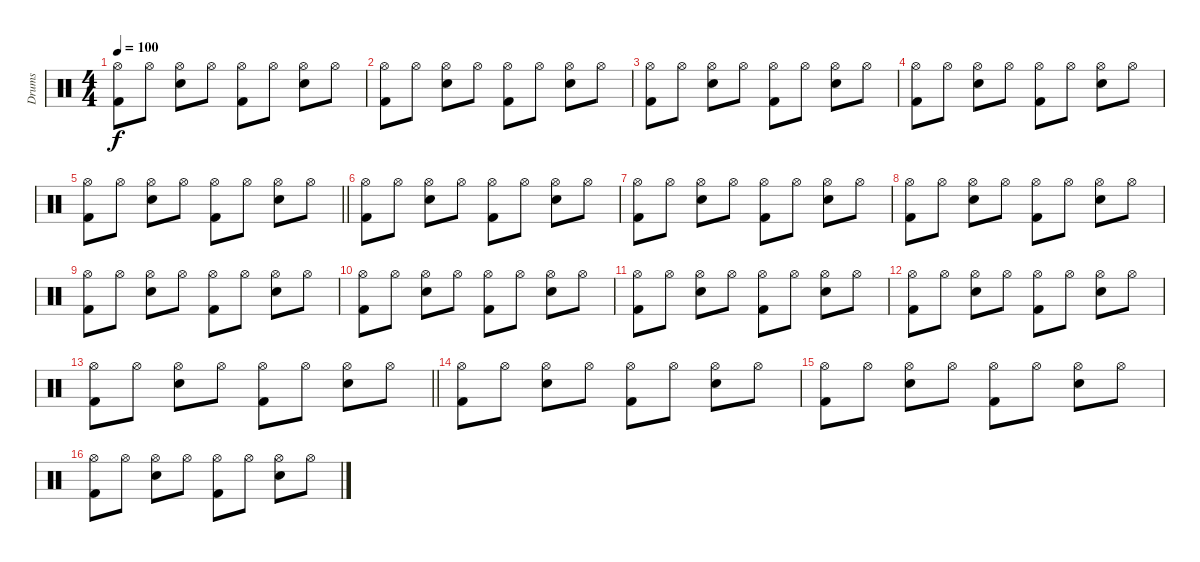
\track ("Drums" "Drums") {instrument percussion}
\staff {score}
\articulation defaults
\ts (4 4)
\tempo 100
\clef neutral
\ks c
("Hi-Hat (open)" "Kick (hit) 2").8{dy f} "Hi-Hat (open)".8 ("Hi-Hat (open)" "Electric Snare (hit)").8 "Hi-Hat (open)".8 ("Hi-Hat (open)" "Kick (hit) 2").8 "Hi-Hat (open)".8 ("Hi-Hat (open)" "Electric Snare (hit)").8 "Hi-Hat (open)".8 |
("Hi-Hat (open)" "Kick (hit) 2").8 "Hi-Hat (open)".8 ("Hi-Hat (open)" "Electric Snare (hit)").8 "Hi-Hat (open)".8 ("Hi-Hat (open)" "Kick (hit) 2").8 "Hi-Hat (open)".8 ("Hi-Hat (open)" "Electric Snare (hit)").8 "Hi-Hat (open)".8 |
("Hi-Hat (open)" "Kick (hit) 2").8 "Hi-Hat (open)".8 ("Hi-Hat (open)" "Electric Snare (hit)").8 "Hi-Hat (open)".8 ("Hi-Hat (open)" "Kick (hit) 2").8 "Hi-Hat (open)".8 ("Hi-Hat (open)" "Electric Snare (hit)").8 "Hi-Hat (open)".8 |
("Hi-Hat (open)" "Kick (hit) 2").8 "Hi-Hat (open)".8 ("Hi-Hat (open)" "Electric Snare (hit)").8 "Hi-Hat (open)".8 ("Hi-Hat (open)" "Kick (hit) 2").8 "Hi-Hat (open)".8 ("Hi-Hat (open)" "Electric Snare (hit)").8 "Hi-Hat (open)".8 |
\barLineRight lightlight
("Hi-Hat (open)" "Kick (hit) 2").8 "Hi-Hat (open)".8 ("Hi-Hat (open)" "Electric Snare (hit)").8 "Hi-Hat (open)".8 ("Hi-Hat (open)" "Kick (hit) 2").8 "Hi-Hat (open)".8 ("Hi-Hat (open)" "Electric Snare (hit)").8 "Hi-Hat (open)".8 |
("Hi-Hat (open)" "Kick (hit) 2").8 "Hi-Hat (open)".8 ("Hi-Hat (open)" "Electric Snare (hit)").8 "Hi-Hat (open)".8 ("Hi-Hat (open)" "Kick (hit) 2").8 "Hi-Hat (open)".8 ("Hi-Hat (open)" "Electric Snare (hit)").8 "Hi-Hat (open)".8 |
("Hi-Hat (open)" "Kick (hit) 2").8 "Hi-Hat (open)".8 ("Hi-Hat (open)" "Electric Snare (hit)").8 "Hi-Hat (open)".8 ("Hi-Hat (open)" "Kick (hit) 2").8 "Hi-Hat (open)".8 ("Hi-Hat (open)" "Electric Snare (hit)").8 "Hi-Hat (open)".8 |
("Hi-Hat (open)" "Kick (hit) 2").8 "Hi-Hat (open)".8 ("Hi-Hat (open)" "Electric Snare (hit)").8 "Hi-Hat (open)".8 ("Hi-Hat (open)" "Kick (hit) 2").8 "Hi-Hat (open)".8 ("Hi-Hat (open)" "Electric Snare (hit)").8 "Hi-Hat (open)".8 |
("Hi-Hat (open)" "Kick (hit) 2").8 "Hi-Hat (open)".8 ("Hi-Hat (open)" "Electric Snare (hit)").8 "Hi-Hat (open)".8 ("Hi-Hat (open)" "Kick (hit) 2").8 "Hi-Hat (open)".8 ("Hi-Hat (open)" "Electric Snare (hit)").8 "Hi-Hat (open)".8 |
("Hi-Hat (open)" "Kick (hit) 2").8 "Hi-Hat (open)".8 ("Hi-Hat (open)" "Electric Snare (hit)").8 "Hi-Hat (open)".8 ("Hi-Hat (open)" "Kick (hit) 2").8 "Hi-Hat (open)".8 ("Hi-Hat (open)" "Electric Snare (hit)").8 "Hi-Hat (open)".8 |
("Hi-Hat (open)" "Kick (hit) 2").8 "Hi-Hat (open)".8 ("Hi-Hat (open)" "Electric Snare (hit)").8 "Hi-Hat (open)".8 ("Hi-Hat (open)" "Kick (hit) 2").8 "Hi-Hat (open)".8 ("Hi-Hat (open)" "Electric Snare (hit)").8 "Hi-Hat (open)".8 |
("Hi-Hat (open)" "Kick (hit) 2").8 "Hi-Hat (open)".8 ("Hi-Hat (open)" "Electric Snare (hit)").8 "Hi-Hat (open)".8 ("Hi-Hat (open)" "Kick (hit) 2").8 "Hi-Hat (open)".8 ("Hi-Hat (open)" "Electric Snare (hit)").8 "Hi-Hat (open)".8 |
\barLineRight lightlight
("Hi-Hat (open)" "Kick (hit) 2").8 "Hi-Hat (open)".8 ("Hi-Hat (open)" "Electric Snare (hit)").8 "Hi-Hat (open)".8 ("Hi-Hat (open)" "Kick (hit) 2").8 "Hi-Hat (open)".8 ("Hi-Hat (open)" "Electric Snare (hit)").8 "Hi-Hat (open)".8 |
("Hi-Hat (open)" "Kick (hit) 2").8 "Hi-Hat (open)".8 ("Hi-Hat (open)" "Electric Snare (hit)").8 "Hi-Hat (open)".8 ("Hi-Hat (open)" "Kick (hit) 2").8 "Hi-Hat (open)".8 ("Hi-Hat (open)" "Electric Snare (hit)").8 "Hi-Hat (open)".8 |
("Hi-Hat (open)" "Kick (hit) 2").8 "Hi-Hat (open)".8 ("Hi-Hat (open)" "Electric Snare (hit)").8 "Hi-Hat (open)".8 ("Hi-Hat (open)" "Kick (hit) 2").8 "Hi-Hat (open)".8 ("Hi-Hat (open)" "Electric Snare (hit)").8 "Hi-Hat (open)".8 |
("Hi-Hat (open)" "Kick (hit) 2").8 "Hi-Hat (open)".8 ("Hi-Hat (open)" "Electric Snare (hit)").8 "Hi-Hat (open)".8 ("Hi-Hat (open)" "Kick (hit) 2").8 "Hi-Hat (open)".8 ("Hi-Hat (open)" "Electric Snare (hit)").8 "Hi-Hat (open)".8
